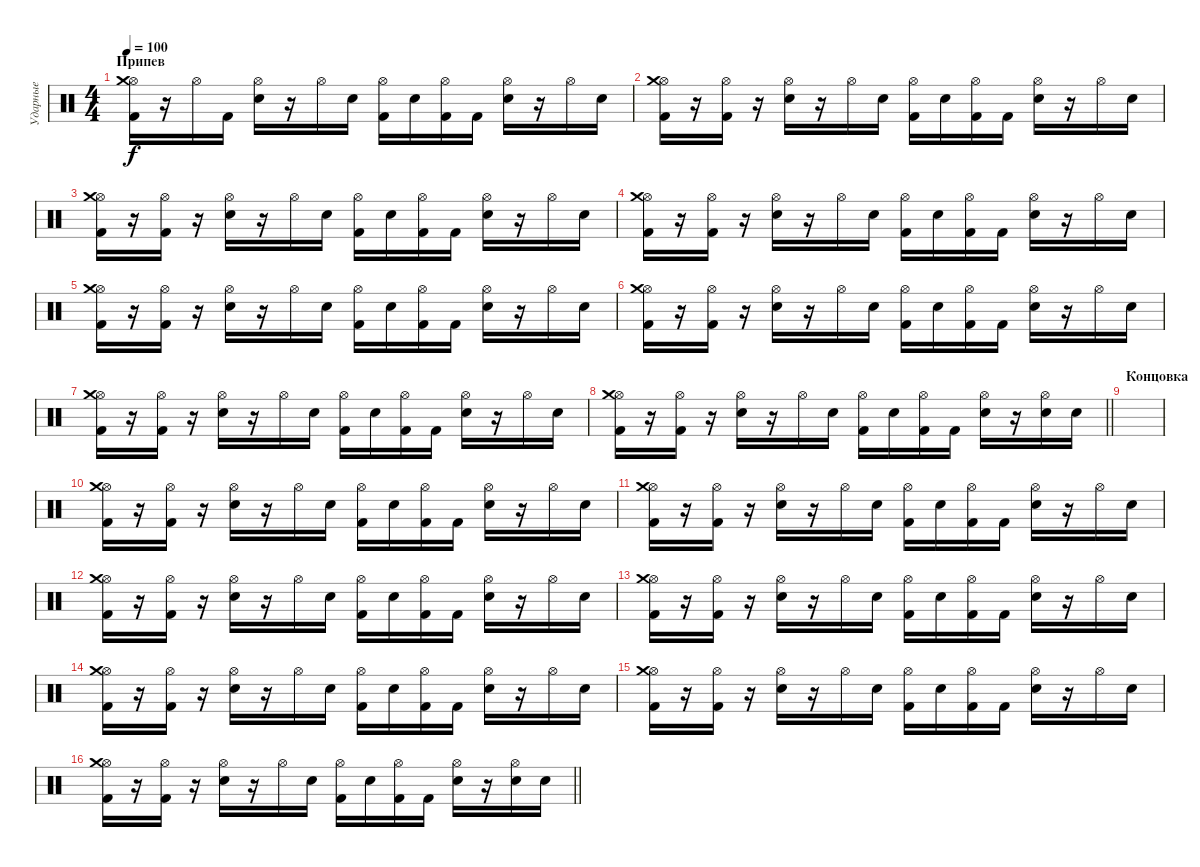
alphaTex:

\track ("Ударные" "Ударные") {instrument percussion}
\staff {score}
\articulation defaults
\ts (4 4)
\section ("" "Припев")
\tempo 100
\clef neutral
\ks c
("Hi-Hat (open)" "Kick (hit) 2" "Crash medium (hit)").16{dy f} r.16 "Hi-Hat (open)".16 "Kick (hit) 2".16 ("Hi-Hat (open)" "Electric Snare (hit)").16 r.16 "Hi-Hat (open)".16 "Electric Snare (hit)".16 ("Hi-Hat (open)" "Kick (hit) 2").16 "Electric Snare (hit)".16 ("Hi-Hat (open)" "Kick (hit) 2").16 "Kick (hit) 2".16 ("Hi-Hat (open)" "Electric Snare (hit)").16 r.16 "Hi-Hat (open)".16 "Electric Snare (hit)".16 |
("Hi-Hat (open)" "Kick (hit) 2" "Crash medium (hit)").16 r.16 ("Hi-Hat (open)" "Kick (hit) 2").16 r.16 ("Hi-Hat (open)" "Electric Snare (hit)").16 r.16 "Hi-Hat (open)".16 "Electric Snare (hit)".16 ("Hi-Hat (open)" "Kick (hit) 2").16 "Electric Snare (hit)".16 ("Hi-Hat (open)" "Kick (hit) 2").16 "Kick (hit) 2".16 ("Hi-Hat (open)" "Electric Snare (hit)").16 r.16 "Hi-Hat (open)".16 "Electric Snare (hit)".16 |
("Hi-Hat (open)" "Kick (hit) 2" "Crash medium (hit)").16 r.16 ("Hi-Hat (open)" "Kick (hit) 2").16 r.16 ("Hi-Hat (open)" "Electric Snare (hit)").16 r.16 "Hi-Hat (open)".16 "Electric Snare (hit)".16 ("Hi-Hat (open)" "Kick (hit) 2").16 "Electric Snare (hit)".16 ("Hi-Hat (open)" "Kick (hit) 2").16 "Kick (hit) 2".16 ("Hi-Hat (open)" "Electric Snare (hit)").16 r.16 "Hi-Hat (open)".16 "Electric Snare (hit)".16 |
("Hi-Hat (open)" "Kick (hit) 2" "Crash medium (hit)").16 r.16 ("Hi-Hat (open)" "Kick (hit) 2").16 r.16 ("Hi-Hat (open)" "Electric Snare (hit)").16 r.16 "Hi-Hat (open)".16 "Electric Snare (hit)".16 ("Hi-Hat (open)" "Kick (hit) 2").16 "Electric Snare (hit)".16 ("Hi-Hat (open)" "Kick (hit) 2").16 "Kick (hit) 2".16 ("Hi-Hat (open)" "Electric Snare (hit)").16 r.16 "Hi-Hat (open)".16 "Electric Snare (hit)".16 |
("Hi-Hat (open)" "Kick (hit) 2" "Crash medium (hit)").16 r.16 ("Hi-Hat (open)" "Kick (hit) 2").16 r.16 ("Hi-Hat (open)" "Electric Snare (hit)").16 r.16 "Hi-Hat (open)".16 "Electric Snare (hit)".16 ("Hi-Hat (open)" "Kick (hit) 2").16 "Electric Snare (hit)".16 ("Hi-Hat (open)" "Kick (hit) 2").16 "Kick (hit) 2".16 ("Hi-Hat (open)" "Electric Snare (hit)").16 r.16 "Hi-Hat (open)".16 "Electric Snare (hit)".16 |
("Hi-Hat (open)" "Kick (hit) 2" "Crash medium (hit)").16 r.16 ("Hi-Hat (open)" "Kick (hit) 2").16 r.16 ("Hi-Hat (open)" "Electric Snare (hit)").16 r.16 "Hi-Hat (open)".16 "Electric Snare (hit)".16 ("Hi-Hat (open)" "Kick (hit) 2").16 "Electric Snare (hit)".16 ("Hi-Hat (open)" "Kick (hit) 2").16 "Kick (hit) 2".16 ("Hi-Hat (open)" "Electric Snare (hit)").16 r.16 "Hi-Hat (open)".16 "Electric Snare (hit)".16 |
("Hi-Hat (open)" "Kick (hit) 2" "Crash medium (hit)").16 r.16 ("Hi-Hat (open)" "Kick (hit) 2").16 r.16 ("Hi-Hat (open)" "Electric Snare (hit)").16 r.16 "Hi-Hat (open)".16 "Electric Snare (hit)".16 ("Hi-Hat (open)" "Kick (hit) 2").16 "Electric Snare (hit)".16 ("Hi-Hat (open)" "Kick (hit) 2").16 "Kick (hit) 2".16 ("Hi-Hat (open)" "Electric Snare (hit)").16 r.16 "Hi-Hat (open)".16 "Electric Snare (hit)".16 |
\barLineRight lightlight
("Hi-Hat (open)" "Kick (hit) 2" "Crash medium (hit)").16 r.16 ("Hi-Hat (open)" "Kick (hit) 2").16 r.16 ("Hi-Hat (open)" "Electric Snare (hit)").16 r.16 "Hi-Hat (open)".16 "Electric Snare (hit)".16 ("Hi-Hat (open)" "Kick (hit) 2").16 "Electric Snare (hit)".16 ("Hi-Hat (open)" "Kick (hit) 2").16 "Kick (hit) 2".16 ("Hi-Hat (open)" "Electric Snare (hit)").16 r.16 ("Hi-Hat (open)" "Electric Snare (hit)").16 "Electric Snare (hit)".16 |
\section ("" "Концовка")
|
("Hi-Hat (open)" "Kick (hit) 2" "Crash medium (hit)").16 r.16 ("Hi-Hat (open)" "Kick (hit) 2").16 r.16 ("Hi-Hat (open)" "Electric Snare (hit)").16 r.16 "Hi-Hat (open)".16 "Electric Snare (hit)".16 ("Hi-Hat (open)" "Kick (hit) 2").16 "Electric Snare (hit)".16 ("Hi-Hat (open)" "Kick (hit) 2").16 "Kick (hit) 2".16 ("Hi-Hat (open)" "Electric Snare (hit)").16 r.16 "Hi-Hat (open)".16 "Electric Snare (hit)".16 |
("Hi-Hat (open)" "Kick (hit) 2" "Crash medium (hit)").16 r.16 ("Hi-Hat (open)" "Kick (hit) 2").16 r.16 ("Hi-Hat (open)" "Electric Snare (hit)").16 r.16 "Hi-Hat (open)".16 "Electric Snare (hit)".16 ("Hi-Hat (open)" "Kick (hit) 2").16 "Electric Snare (hit)".16 ("Hi-Hat (open)" "Kick (hit) 2").16 "Kick (hit) 2".16 ("Hi-Hat (open)" "Electric Snare (hit)").16 r.16 "Hi-Hat (open)".16 "Electric Snare (hit)".16 |
("Hi-Hat (open)" "Kick (hit) 2" "Crash medium (hit)").16 r.16 ("Hi-Hat (open)" "Kick (hit) 2").16 r.16 ("Hi-Hat (open)" "Electric Snare (hit)").16 r.16 "Hi-Hat (open)".16 "Electric Snare (hit)".16 ("Hi-Hat (open)" "Kick (hit) 2").16 "Electric Snare (hit)".16 ("Hi-Hat (open)" "Kick (hit) 2").16 "Kick (hit) 2".16 ("Hi-Hat (open)" "Electric Snare (hit)").16 r.16 "Hi-Hat (open)".16 "Electric Snare (hit)".16 |
("Hi-Hat (open)" "Kick (hit) 2" "Crash medium (hit)").16 r.16 ("Hi-Hat (open)" "Kick (hit) 2").16 r.16 ("Hi-Hat (open)" "Electric Snare (hit)").16 r.16 "Hi-Hat (open)".16 "Electric Snare (hit)".16 ("Hi-Hat (open)" "Kick (hit) 2").16 "Electric Snare (hit)".16 ("Hi-Hat (open)" "Kick (hit) 2").16 "Kick (hit) 2".16 ("Hi-Hat (open)" "Electric Snare (hit)").16 r.16 "Hi-Hat (open)".16 "Electric Snare (hit)".16 |
("Hi-Hat (open)" "Kick (hit) 2" "Crash medium (hit)").16 r.16 ("Hi-Hat (open)" "Kick (hit) 2").16 r.16 ("Hi-Hat (open)" "Electric Snare (hit)").16 r.16 "Hi-Hat (open)".16 "Electric Snare (hit)".16 ("Hi-Hat (open)" "Kick (hit) 2").16 "Electric Snare (hit)".16 ("Hi-Hat (open)" "Kick (hit) 2").16 "Kick (hit) 2".16 ("Hi-Hat (open)" "Electric Snare (hit)").16 r.16 "Hi-Hat (open)".16 "Electric Snare (hit)".16 |
("Hi-Hat (open)" "Kick (hit) 2" "Crash medium (hit)").16 r.16 ("Hi-Hat (open)" "Kick (hit) 2").16 r.16 ("Hi-Hat (open)" "Electric Snare (hit)").16 r.16 "Hi-Hat (open)".16 "Electric Snare (hit)".16 ("Hi-Hat (open)" "Kick (hit) 2").16 "Electric Snare (hit)".16 ("Hi-Hat (open)" "Kick (hit) 2").16 "Kick (hit) 2".16 ("Hi-Hat (open)" "Electric Snare (hit)").16 r.16 "Hi-Hat (open)".16 "Electric Snare (hit)".16 |
\barLineRight lightlight
("Hi-Hat (open)" "Kick (hit) 2" "Crash medium (hit)").16 r.16 ("Hi-Hat (open)" "Kick (hit) 2").16 r.16 ("Hi-Hat (open)" "Electric Snare (hit)").16 r.16 "Hi-Hat (open)".16 "Electric Snare (hit)".16 ("Hi-Hat (open)" "Kick (hit) 2").16 "Electric Snare (hit)".16 ("Hi-Hat (open)" "Kick (hit) 2").16 "Kick (hit) 2".16 ("Hi-Hat (open)" "Electric Snare (hit)").16 r.16 ("Hi-Hat (open)" "Electric Snare (hit)").16 "Electric Snare (hit)".16
